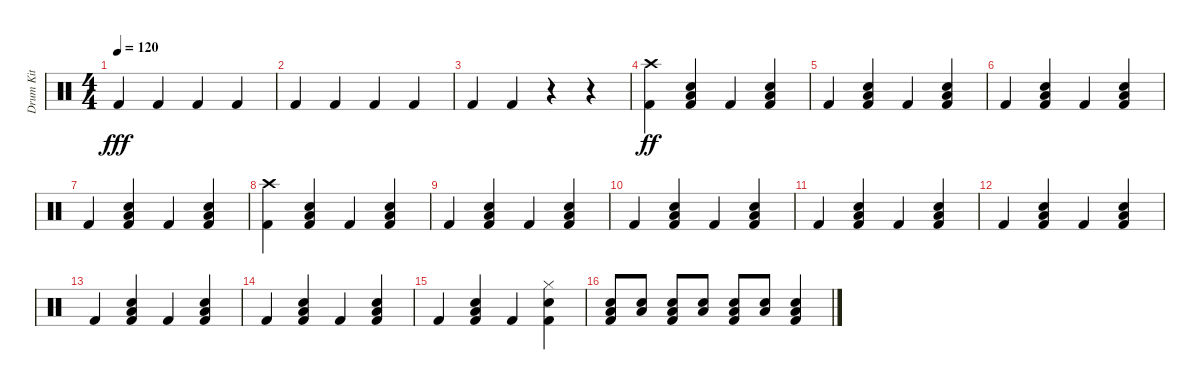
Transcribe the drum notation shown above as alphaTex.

\track ("Drum Kit" "Drum Kit") {instrument percussion}
\staff {score}
\articulation defaults
\ts (4 4)
\tempo 120
\clef neutral
\ks c "Kick (hit) 2".4{dy fff} "Kick (hit) 2".4 "Kick (hit) 2".4 "Kick (hit) 2".4
|
"Kick (hit) 2".4 "Kick (hit) 2".4 "Kick (hit) 2".4 "Kick (hit) 2".4 |
"Kick (hit) 2".4 "Kick (hit) 2".4 r.4 r.4 |
("Crash high (hit)" "Kick (hit) 2").4{dy ff} ("Low Floor Tom (hit)" "Snare (hit) 2" "Kick (hit) 2").4 "Kick (hit) 2".4 ("Low Floor Tom (hit)" "Snare (hit) 2" "Kick (hit) 2").4 |
"Kick (hit) 2".4 ("Low Floor Tom (hit)" "Snare (hit) 2" "Kick (hit) 2").4 "Kick (hit) 2".4 ("Low Floor Tom (hit)" "Snare (hit) 2" "Kick (hit) 2").4 |
"Kick (hit) 2".4 ("Low Floor Tom (hit)" "Snare (hit) 2" "Kick (hit) 2").4 "Kick (hit) 2".4 ("Low Floor Tom (hit)" "Snare (hit) 2" "Kick (hit) 2").4 |
"Kick (hit) 2".4 ("Low Floor Tom (hit)" "Snare (hit) 2" "Kick (hit) 2").4 "Kick (hit) 2".4 ("Low Floor Tom (hit)" "Snare (hit) 2" "Kick (hit) 2").4 |
("Crash high (hit)" "Kick (hit) 2").4 ("Low Floor Tom (hit)" "Snare (hit) 2" "Kick (hit) 2").4 "Kick (hit) 2".4 ("Low Floor Tom (hit)" "Snare (hit) 2" "Kick (hit) 2").4 |
"Kick (hit) 2".4 ("Low Floor Tom (hit)" "Snare (hit) 2" "Kick (hit) 2").4 "Kick (hit) 2".4 ("Low Floor Tom (hit)" "Snare (hit) 2" "Kick (hit) 2").4 |
"Kick (hit) 2".4 ("Low Floor Tom (hit)" "Snare (hit) 2" "Kick (hit) 2").4 "Kick (hit) 2".4 ("Low Floor Tom (hit)" "Snare (hit) 2" "Kick (hit) 2").4 |
"Kick (hit) 2".4 ("Low Floor Tom (hit)" "Snare (hit) 2" "Kick (hit) 2").4 "Kick (hit) 2".4 ("Low Floor Tom (hit)" "Snare (hit) 2" "Kick (hit) 2").4 |
"Kick (hit) 2".4 ("Low Floor Tom (hit)" "Snare (hit) 2" "Kick (hit) 2").4 "Kick (hit) 2".4 ("Low Floor Tom (hit)" "Snare (hit) 2" "Kick (hit) 2").4 |
"Kick (hit) 2".4 ("Low Floor Tom (hit)" "Snare (hit) 2" "Kick (hit) 2").4 "Kick (hit) 2".4 ("Low Floor Tom (hit)" "Snare (hit) 2" "Kick (hit) 2").4 |
"Kick (hit) 2".4 ("Low Floor Tom (hit)" "Snare (hit) 2" "Kick (hit) 2").4 "Kick (hit) 2".4 ("Low Floor Tom (hit)" "Snare (hit) 2" "Kick (hit) 2").4 |
"Kick (hit) 2".4 ("Low Floor Tom (hit)" "Snare (hit) 2" "Kick (hit) 2").4 "Kick (hit) 2".4 ("Hi-Hat (closed)" "Snare (hit) 2" "Kick (hit) 2").4 |
("Low Floor Tom (hit)" "Snare (hit) 2" "Kick (hit) 2").8 ("Low Floor Tom (hit)" "Snare (hit) 2").8 ("Low Floor Tom (hit)" "Snare (hit) 2" "Kick (hit) 2").8 ("Low Floor Tom (hit)" "Snare (hit) 2").8 ("Low Floor Tom (hit)" "Snare (hit) 2" "Kick (hit) 2").8 ("Low Floor Tom (hit)" "Snare (hit) 2").8 ("Low Floor Tom (hit)" "Snare (hit) 2" "Kick (hit) 2").4
